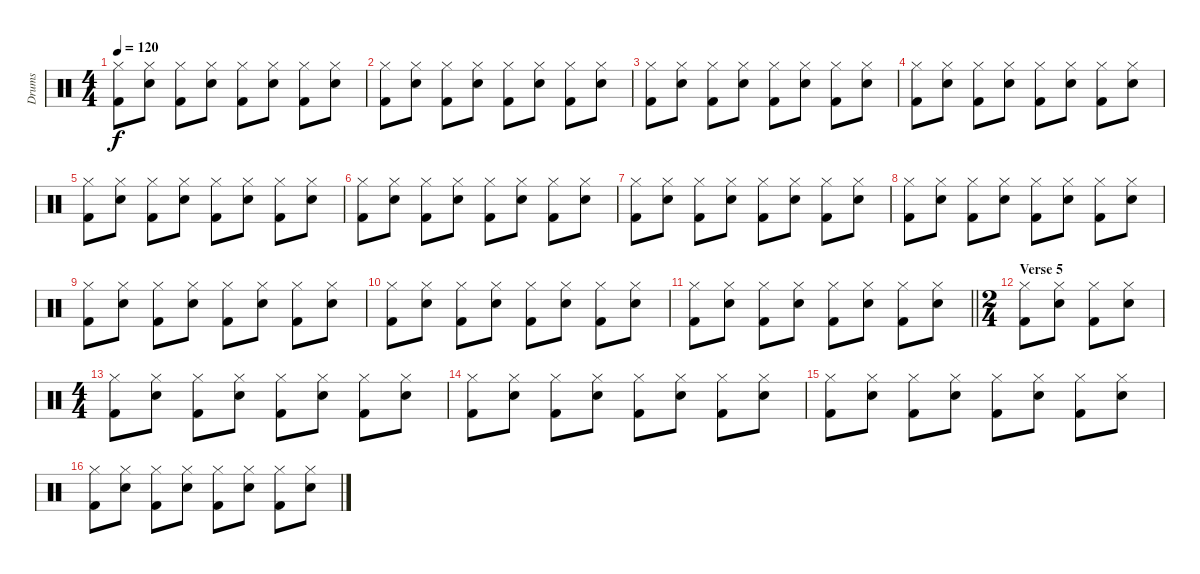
\track ("Drums" "Drums") {instrument percussion}
\staff {score}
\articulation defaults
\ts (4 4)
\tempo 120
\clef neutral
\ks c
("Hi-Hat (closed)" "Kick (hit) 2").8{dy f} ("Hi-Hat (closed)" "Snare (hit) 2").8 ("Hi-Hat (closed)" "Kick (hit) 2").8 ("Hi-Hat (closed)" "Snare (hit) 2").8 ("Hi-Hat (closed)" "Kick (hit) 2").8 ("Hi-Hat (closed)" "Snare (hit) 2").8 ("Hi-Hat (closed)" "Kick (hit) 2").8 ("Hi-Hat (closed)" "Snare (hit) 2").8 |
("Hi-Hat (closed)" "Kick (hit) 2").8 ("Hi-Hat (closed)" "Snare (hit) 2").8 ("Hi-Hat (closed)" "Kick (hit) 2").8 ("Hi-Hat (closed)" "Snare (hit) 2").8 ("Hi-Hat (closed)" "Kick (hit) 2").8 ("Hi-Hat (closed)" "Snare (hit) 2").8 ("Hi-Hat (closed)" "Kick (hit) 2").8 ("Hi-Hat (closed)" "Snare (hit) 2").8 |
("Hi-Hat (closed)" "Kick (hit) 2").8 ("Hi-Hat (closed)" "Snare (hit) 2").8 ("Hi-Hat (closed)" "Kick (hit) 2").8 ("Hi-Hat (closed)" "Snare (hit) 2").8 ("Hi-Hat (closed)" "Kick (hit) 2").8 ("Hi-Hat (closed)" "Snare (hit) 2").8 ("Hi-Hat (closed)" "Kick (hit) 2").8 ("Hi-Hat (closed)" "Snare (hit) 2").8 |
("Hi-Hat (closed)" "Kick (hit) 2").8 ("Hi-Hat (closed)" "Snare (hit) 2").8 ("Hi-Hat (closed)" "Kick (hit) 2").8 ("Hi-Hat (closed)" "Snare (hit) 2").8 ("Hi-Hat (closed)" "Kick (hit) 2").8 ("Hi-Hat (closed)" "Snare (hit) 2").8 ("Hi-Hat (closed)" "Kick (hit) 2").8 ("Hi-Hat (closed)" "Snare (hit) 2").8 |
("Hi-Hat (closed)" "Kick (hit) 2").8 ("Hi-Hat (closed)" "Snare (hit) 2").8 ("Hi-Hat (closed)" "Kick (hit) 2").8 ("Hi-Hat (closed)" "Snare (hit) 2").8 ("Hi-Hat (closed)" "Kick (hit) 2").8 ("Hi-Hat (closed)" "Snare (hit) 2").8 ("Hi-Hat (closed)" "Kick (hit) 2").8 ("Hi-Hat (closed)" "Snare (hit) 2").8 |
("Hi-Hat (closed)" "Kick (hit) 2").8 ("Hi-Hat (closed)" "Snare (hit) 2").8 ("Hi-Hat (closed)" "Kick (hit) 2").8 ("Hi-Hat (closed)" "Snare (hit) 2").8 ("Hi-Hat (closed)" "Kick (hit) 2").8 ("Hi-Hat (closed)" "Snare (hit) 2").8 ("Hi-Hat (closed)" "Kick (hit) 2").8 ("Hi-Hat (closed)" "Snare (hit) 2").8 |
("Hi-Hat (closed)" "Kick (hit) 2").8 ("Hi-Hat (closed)" "Snare (hit) 2").8 ("Hi-Hat (closed)" "Kick (hit) 2").8 ("Hi-Hat (closed)" "Snare (hit) 2").8 ("Hi-Hat (closed)" "Kick (hit) 2").8 ("Hi-Hat (closed)" "Snare (hit) 2").8 ("Hi-Hat (closed)" "Kick (hit) 2").8 ("Hi-Hat (closed)" "Snare (hit) 2").8 |
("Hi-Hat (closed)" "Kick (hit) 2").8 ("Hi-Hat (closed)" "Snare (hit) 2").8 ("Hi-Hat (closed)" "Kick (hit) 2").8 ("Hi-Hat (closed)" "Snare (hit) 2").8 ("Hi-Hat (closed)" "Kick (hit) 2").8 ("Hi-Hat (closed)" "Snare (hit) 2").8 ("Hi-Hat (closed)" "Kick (hit) 2").8 ("Hi-Hat (closed)" "Snare (hit) 2").8 |
("Hi-Hat (closed)" "Kick (hit) 2").8 ("Hi-Hat (closed)" "Snare (hit) 2").8 ("Hi-Hat (closed)" "Kick (hit) 2").8 ("Hi-Hat (closed)" "Snare (hit) 2").8 ("Hi-Hat (closed)" "Kick (hit) 2").8 ("Hi-Hat (closed)" "Snare (hit) 2").8 ("Hi-Hat (closed)" "Kick (hit) 2").8 ("Hi-Hat (closed)" "Snare (hit) 2").8 |
("Hi-Hat (closed)" "Kick (hit) 2").8 ("Hi-Hat (closed)" "Snare (hit) 2").8 ("Hi-Hat (closed)" "Kick (hit) 2").8 ("Hi-Hat (closed)" "Snare (hit) 2").8 ("Hi-Hat (closed)" "Kick (hit) 2").8 ("Hi-Hat (closed)" "Snare (hit) 2").8 ("Hi-Hat (closed)" "Kick (hit) 2").8 ("Hi-Hat (closed)" "Snare (hit) 2").8 |
\barLineRight lightlight
("Hi-Hat (closed)" "Kick (hit) 2").8 ("Hi-Hat (closed)" "Snare (hit) 2").8 ("Hi-Hat (closed)" "Kick (hit) 2").8 ("Hi-Hat (closed)" "Snare (hit) 2").8 ("Hi-Hat (closed)" "Kick (hit) 2").8 ("Hi-Hat (closed)" "Snare (hit) 2").8 ("Hi-Hat (closed)" "Kick (hit) 2").8 ("Hi-Hat (closed)" "Snare (hit) 2").8 |
\ts (2 4)
\section ("" "Verse 5")
("Hi-Hat (closed)" "Kick (hit) 2").8 ("Hi-Hat (closed)" "Snare (hit) 2").8 ("Hi-Hat (closed)" "Kick (hit) 2").8 ("Hi-Hat (closed)" "Snare (hit) 2").8 |
\ts (4 4)
("Hi-Hat (closed)" "Kick (hit) 2").8 ("Hi-Hat (closed)" "Snare (hit) 2").8 ("Hi-Hat (closed)" "Kick (hit) 2").8 ("Hi-Hat (closed)" "Snare (hit) 2").8 ("Hi-Hat (closed)" "Kick (hit) 2").8 ("Hi-Hat (closed)" "Snare (hit) 2").8 ("Hi-Hat (closed)" "Kick (hit) 2").8 ("Hi-Hat (closed)" "Snare (hit) 2").8 |
("Hi-Hat (closed)" "Kick (hit) 2").8 ("Hi-Hat (closed)" "Snare (hit) 2").8 ("Hi-Hat (closed)" "Kick (hit) 2").8 ("Hi-Hat (closed)" "Snare (hit) 2").8 ("Hi-Hat (closed)" "Kick (hit) 2").8 ("Hi-Hat (closed)" "Snare (hit) 2").8 ("Hi-Hat (closed)" "Kick (hit) 2").8 ("Hi-Hat (closed)" "Snare (hit) 2").8 |
("Hi-Hat (closed)" "Kick (hit) 2").8 ("Hi-Hat (closed)" "Snare (hit) 2").8 ("Hi-Hat (closed)" "Kick (hit) 2").8 ("Hi-Hat (closed)" "Snare (hit) 2").8 ("Hi-Hat (closed)" "Kick (hit) 2").8 ("Hi-Hat (closed)" "Snare (hit) 2").8 ("Hi-Hat (closed)" "Kick (hit) 2").8 ("Hi-Hat (closed)" "Snare (hit) 2").8 |
("Hi-Hat (closed)" "Kick (hit) 2").8 ("Hi-Hat (closed)" "Snare (hit) 2").8 ("Hi-Hat (closed)" "Kick (hit) 2").8 ("Hi-Hat (closed)" "Snare (hit) 2").8 ("Hi-Hat (closed)" "Kick (hit) 2").8 ("Hi-Hat (closed)" "Snare (hit) 2").8 ("Hi-Hat (closed)" "Kick (hit) 2").8 ("Hi-Hat (closed)" "Snare (hit) 2").8
